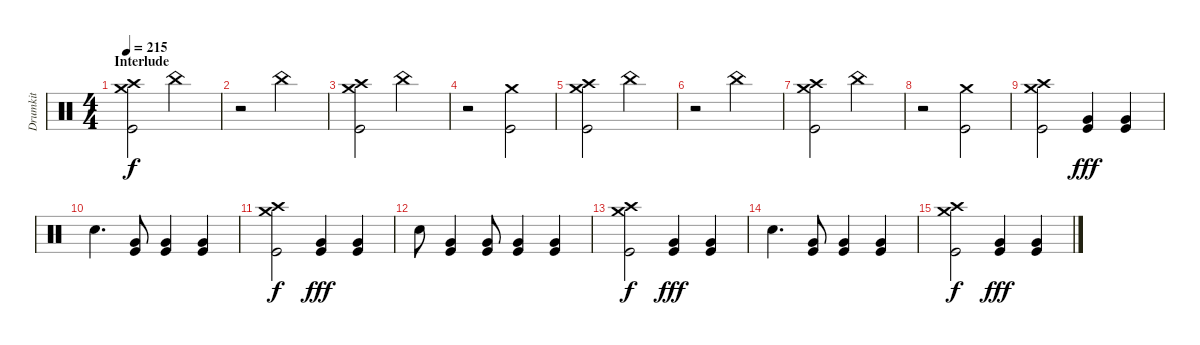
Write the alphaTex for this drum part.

\track ("Drumkit" "Drumkit") {instrument percussion}
\staff {score}
\articulation defaults
\ts (4 4)
\section ("" "Interlude")
\tempo 215
\clef neutral
\ks c
("Crash medium (hit)" "Crash high (hit)" "Kick (hit)").2{dy f} "China (hit)".2 |
r.2 "China (hit)".2 |
("Crash medium (hit)" "Crash high (hit)" "Kick (hit)").2 "China (hit)".2 |
r.2 ("Crash medium (hit)" "Kick (hit)").2 |
("Crash medium (hit)" "Crash high (hit)" "Kick (hit)").2 "China (hit)".2 |
r.2 "China (hit)".2 |
("Crash medium (hit)" "Crash high (hit)" "Kick (hit)").2 "China (hit)".2 |
r.2 ("Crash medium (hit)" "Kick (hit)").2 |
("Crash medium (hit)" "Crash high (hit)" "Kick (hit)").2 ("Very Low Tom (hit)" "Kick (hit)").4{dy fff} ("Very Low Tom (hit)" "Kick (hit)").4 |
"Snare (hit) 2".4{d} ("Very Low Tom (hit)" "Kick (hit)").8 ("Very Low Tom (hit)" "Kick (hit)").4 ("Very Low Tom (hit)" "Kick (hit)").4 |
("Crash medium (hit)" "Crash high (hit)" "Kick (hit)").2{dy f} ("Very Low Tom (hit)" "Kick (hit)").4{dy fff} ("Very Low Tom (hit)" "Kick (hit)").4 |
"Snare (hit) 2".8 ("Very Low Tom (hit)" "Kick (hit)").4 ("Very Low Tom (hit)" "Kick (hit)").8 ("Very Low Tom (hit)" "Kick (hit)").4 ("Very Low Tom (hit)" "Kick (hit)").4 |
("Crash medium (hit)" "Crash high (hit)" "Kick (hit)").2{dy f} ("Very Low Tom (hit)" "Kick (hit)").4{dy fff} ("Very Low Tom (hit)" "Kick (hit)").4 |
"Snare (hit) 2".4{d} ("Very Low Tom (hit)" "Kick (hit)").8 ("Very Low Tom (hit)" "Kick (hit)").4 ("Very Low Tom (hit)" "Kick (hit)").4 |
("Crash medium (hit)" "Crash high (hit)" "Kick (hit)").2{dy f} ("Very Low Tom (hit)" "Kick (hit)").4{dy fff} ("Very Low Tom (hit)" "Kick (hit)").4
